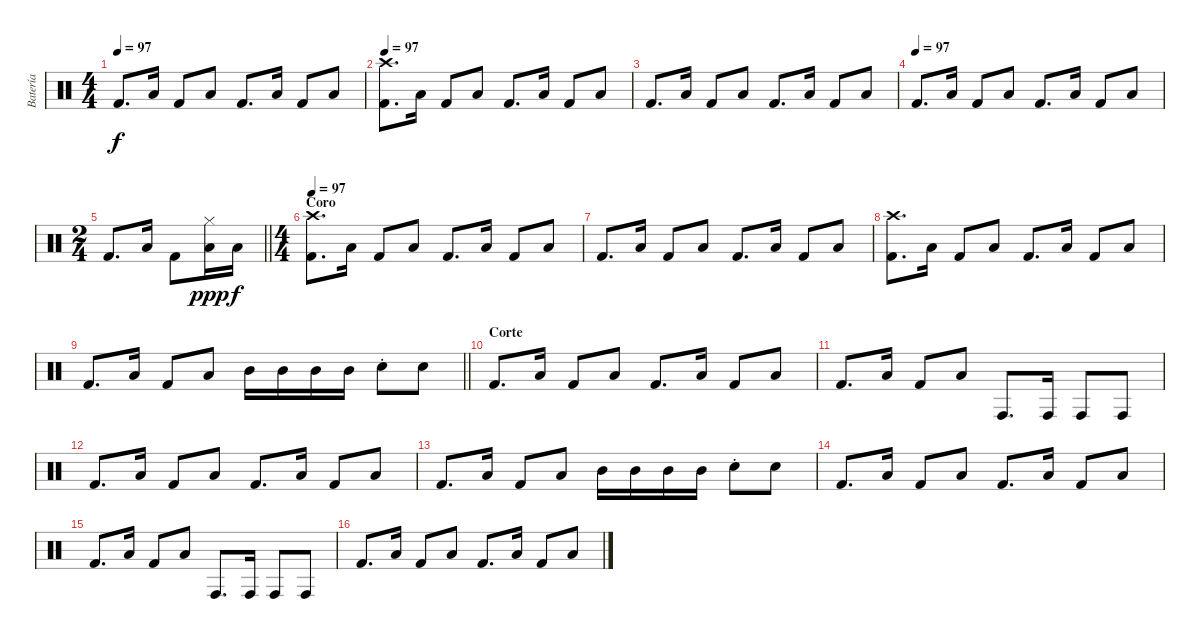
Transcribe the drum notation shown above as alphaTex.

\track ("Batería" "Batería") {instrument percussion}
\staff {score}
\articulation defaults
\ts (4 4)
\tempo 97
\clef neutral
\ks c "Kick (hit) 2".8{d dy f} "Low Tom (hit)".16 "Kick (hit) 2".8 "Low Tom (hit)".8 "Kick (hit) 2".8{d} "Low Tom (hit)".16 "Kick (hit) 2".8 "Low Tom (hit)".8
|
\tempo 97
("Crash high (hit)" "Kick (hit) 2").8{d} "Low Tom (hit)".16 "Kick (hit) 2".8 "Low Tom (hit)".8 "Kick (hit) 2".8{d} "Low Tom (hit)".16 "Kick (hit) 2".8 "Low Tom (hit)".8 |
"Kick (hit) 2".8{d} "Low Tom (hit)".16 "Kick (hit) 2".8 "Low Tom (hit)".8 "Kick (hit) 2".8{d} "Low Tom (hit)".16 "Kick (hit) 2".8 "Low Tom (hit)".8 |
\tempo (97)
"Kick (hit) 2".8{d} "Low Tom (hit)".16 "Kick (hit) 2".8 "Low Tom (hit)".8 "Kick (hit) 2".8{d} "Low Tom (hit)".16 "Kick (hit) 2".8 "Low Tom (hit)".8 |
\ts (2 4)
\barLineRight lightlight "Kick (hit) 2".8{d} "Low Tom (hit)".16 "Kick (hit) 2".8
("Low Tom (hit)" "Hi-Hat (closed)").16{dy ppp} "Low Tom (hit)".16{dy f} |
\ts (4 4)
\section ("" "Coro")
\tempo 97
("Crash high (hit)" "Kick (hit) 2").8{d} "Low Tom (hit)".16 "Kick (hit) 2".8 "Low Tom (hit)".8 "Kick (hit) 2".8{d} "Low Tom (hit)".16 "Kick (hit) 2".8 "Low Tom (hit)".8 |
"Kick (hit) 2".8{d} "Low Tom (hit)".16 "Kick (hit) 2".8 "Low Tom (hit)".8 "Kick (hit) 2".8{d} "Low Tom (hit)".16 "Kick (hit) 2".8 "Low Tom (hit)".8 |
("Kick (hit) 2" "Crash high (hit)").8{d} "Low Tom (hit)".16 "Kick (hit) 2".8 "Low Tom (hit)".8 "Kick (hit) 2".8{d} "Low Tom (hit)".16 "Kick (hit) 2".8 "Low Tom (hit)".8 |
\barLineRight lightlight "Kick (hit) 2".8{d} "Low Tom (hit)".16 "Kick (hit) 2".8 "Low Tom (hit)".8 "Mid Tom (hit)".16 "Mid Tom (hit)".16 "Mid Tom (hit)".16 "Mid Tom (hit)".16 "Snare (hit) 2"{st}.8 "Snare (hit) 2".8
|
\section ("" "Corte")
"Kick (hit) 2".8{d} "Low Tom (hit)".16 "Kick (hit) 2".8 "Low Tom (hit)".8 "Kick (hit) 2".8{d} "Low Tom (hit)".16 "Kick (hit) 2".8 "Low Tom (hit)".8 |
"Kick (hit) 2".8{d} "Low Tom (hit)".16 "Kick (hit) 2".8 "Low Tom (hit)".8 "Conga high (hit)".8{d} "Conga high (hit)".16 "Conga high (hit)".8 "Conga high (hit)".8 |
"Kick (hit) 2".8{d} "Low Tom (hit)".16 "Kick (hit) 2".8 "Low Tom (hit)".8 "Kick (hit) 2".8{d} "Low Tom (hit)".16 "Kick (hit) 2".8 "Low Tom (hit)".8 |
"Kick (hit) 2".8{d} "Low Tom (hit)".16 "Kick (hit) 2".8 "Low Tom (hit)".8 "Mid Tom (hit)".16 "Mid Tom (hit)".16 "Mid Tom (hit)".16 "Mid Tom (hit)".16 "Snare (hit) 2"{st}.8 "Snare (hit) 2".8 |
"Kick (hit) 2".8{d} "Low Tom (hit)".16 "Kick (hit) 2".8 "Low Tom (hit)".8 "Kick (hit) 2".8{d} "Low Tom (hit)".16 "Kick (hit) 2".8 "Low Tom (hit)".8 |
"Kick (hit) 2".8{d} "Low Tom (hit)".16 "Kick (hit) 2".8 "Low Tom (hit)".8 "Conga high (hit)".8{d} "Conga high (hit)".16 "Conga high (hit)".8 "Conga high (hit)".8 |
"Kick (hit) 2".8{d} "Low Tom (hit)".16 "Kick (hit) 2".8 "Low Tom (hit)".8 "Kick (hit) 2".8{d} "Low Tom (hit)".16 "Kick (hit) 2".8 "Low Tom (hit)".8
